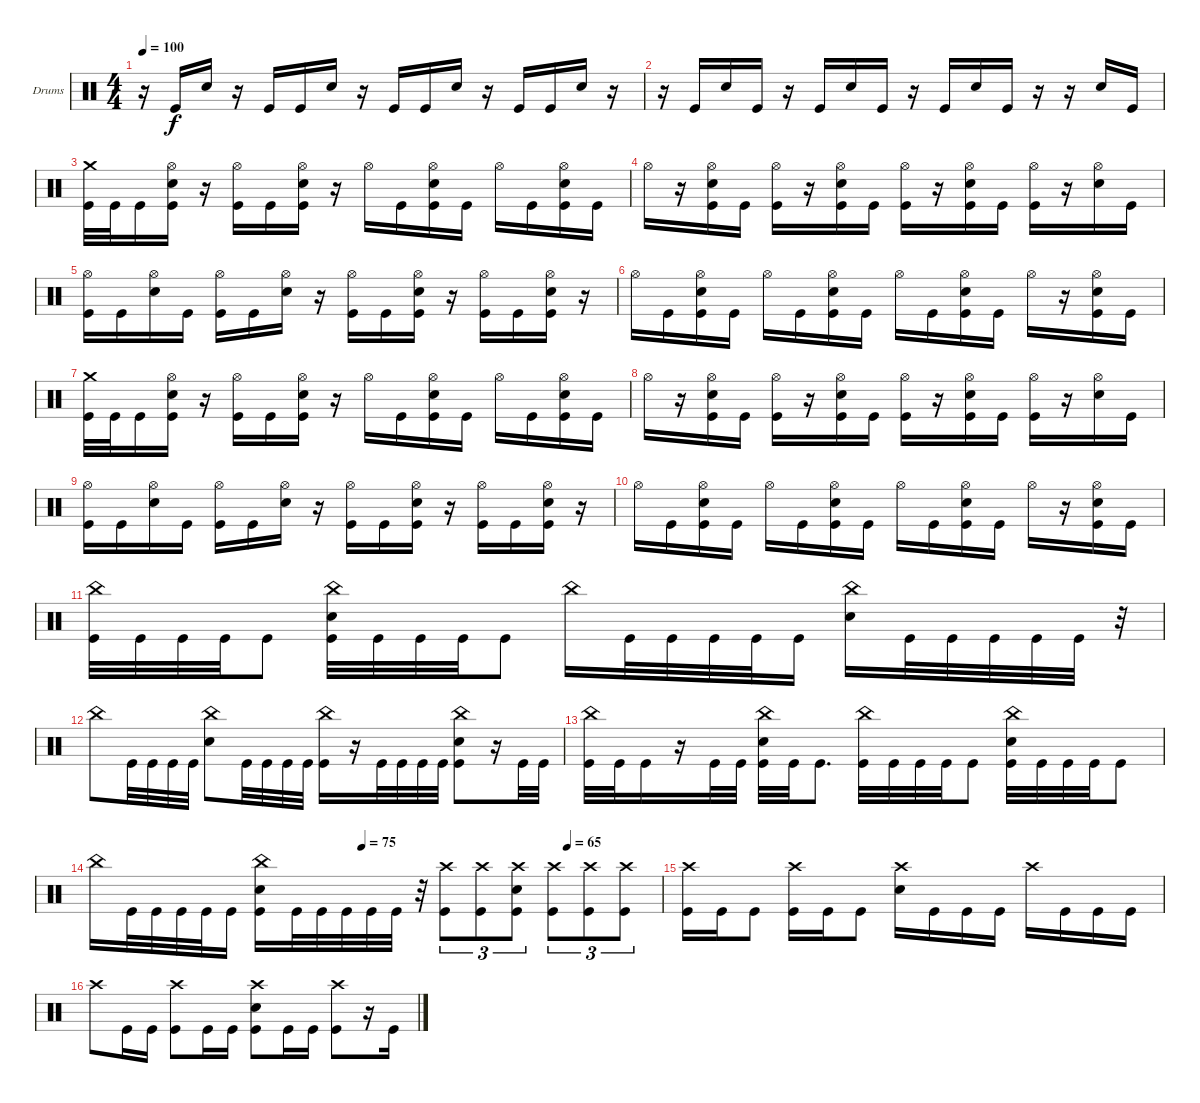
\defaultSystemsLayout 4
\bracketExtendMode groupsimilarinstruments
\firstSystemTrackNameOrientation horizontal
\otherSystemsTrackNameOrientation horizontal
\track ("Drumkit" "Drums") {instrument percussion}
\staff {score}
\articulation defaults
\ts (4 4)
\tempo 100
\clef neutral
\scale
0.5
\ks c
r.16{dy f} "Kick (hit)".16 "Snare (hit) 2".16 r.16 "Kick (hit)".16 "Kick (hit)".16 "Snare (hit) 2".16 r.16 "Kick (hit)".16 "Kick (hit)".16 "Snare (hit) 2".16 r.16 "Kick (hit)".16 "Kick (hit)".16 "Snare (hit) 2".16 r.16 |
\scale
0.5 r.16 "Kick (hit)".16 "Snare (hit) 2".16 "Kick (hit)".16 r.16 "Kick (hit)".16 "Snare (hit) 2".16 "Kick (hit)".16 r.16 "Kick (hit)".16 "Snare (hit) 2".16 "Kick (hit)".16 r.16 r.16 "Snare (hit) 2".16 "Kick (hit)".16 |
\scale
0.522158 ("Crash medium (hit)" "Kick (hit)").32 "Kick (hit)".32 "Kick (hit)".16 ("Hi-Hat (open)" "Snare (hit) 2" "Kick (hit)").16 r.16 ("Hi-Hat (open)" "Kick (hit)").16 "Kick (hit)".16 ("Hi-Hat (open)" "Snare (hit) 2" "Kick (hit)").16 r.16 "Hi-Hat (open)".16 "Kick (hit)".16 ("Hi-Hat (open)" "Snare (hit) 2" "Kick (hit)").16 "Kick (hit)".16 "Hi-Hat (open)".16 "Kick (hit)".16 ("Hi-Hat (open)" "Snare (hit) 2" "Kick (hit)").16 "Kick (hit)".16 |
\scale
0.477842 "Hi-Hat (open)".16 r.16 ("Hi-Hat (open)" "Snare (hit) 2" "Kick (hit)").16 "Kick (hit)".16 ("Hi-Hat (open)" "Kick (hit)").16 r.16 ("Hi-Hat (open)" "Snare (hit) 2" "Kick (hit)").16 "Kick (hit)".16 ("Hi-Hat (open)" "Kick (hit)").16 r.16 ("Hi-Hat (open)" "Snare (hit) 2" "Kick (hit)").16 "Kick (hit)".16 ("Hi-Hat (open)" "Kick (hit)").16 r.16 ("Hi-Hat (open)" "Snare (hit) 2").16 "Kick (hit)".16 |
\scale
0.5 ("Hi-Hat (open)" "Kick (hit)").16 "Kick (hit)".16 ("Hi-Hat (open)" "Snare (hit) 2").16 "Kick (hit)".16 ("Hi-Hat (open)" "Kick (hit)").16 "Kick (hit)".16 ("Hi-Hat (open)" "Snare (hit) 2").16 r.16 ("Hi-Hat (open)" "Kick (hit)").16 "Kick (hit)".16 ("Hi-Hat (open)" "Snare (hit) 2" "Kick (hit)").16 r.16 ("Hi-Hat (open)" "Kick (hit)").16 "Kick (hit)".16 ("Hi-Hat (open)" "Snare (hit) 2" "Kick (hit)").16 r.16 |
\scale
0.5 "Hi-Hat (open)".16 "Kick (hit)".16 ("Hi-Hat (open)" "Snare (hit) 2" "Kick (hit)").16 "Kick (hit)".16 "Hi-Hat (open)".16 "Kick (hit)".16 ("Hi-Hat (open)" "Snare (hit) 2" "Kick (hit)").16 "Kick (hit)".16 "Hi-Hat (open)".16 "Kick (hit)".16 ("Hi-Hat (open)" "Snare (hit) 2" "Kick (hit)").16 "Kick (hit)".16 "Hi-Hat (open)".16 r.16 ("Hi-Hat (open)" "Snare (hit) 2" "Kick (hit)").16 "Kick (hit)".16 |
\scale
0.522158 ("Crash medium (hit)" "Kick (hit)").32 "Kick (hit)".32 "Kick (hit)".16 ("Hi-Hat (open)" "Snare (hit) 2" "Kick (hit)").16 r.16 ("Hi-Hat (open)" "Kick (hit)").16 "Kick (hit)".16 ("Hi-Hat (open)" "Snare (hit) 2" "Kick (hit)").16 r.16 "Hi-Hat (open)".16 "Kick (hit)".16 ("Hi-Hat (open)" "Snare (hit) 2" "Kick (hit)").16 "Kick (hit)".16 "Hi-Hat (open)".16 "Kick (hit)".16 ("Hi-Hat (open)" "Snare (hit) 2" "Kick (hit)").16 "Kick (hit)".16 |
\scale
0.477842 "Hi-Hat (open)".16 r.16 ("Hi-Hat (open)" "Snare (hit) 2" "Kick (hit)").16 "Kick (hit)".16 ("Hi-Hat (open)" "Kick (hit)").16 r.16 ("Hi-Hat (open)" "Snare (hit) 2" "Kick (hit)").16 "Kick (hit)".16 ("Hi-Hat (open)" "Kick (hit)").16 r.16 ("Hi-Hat (open)" "Snare (hit) 2" "Kick (hit)").16 "Kick (hit)".16 ("Hi-Hat (open)" "Kick (hit)").16 r.16 ("Hi-Hat (open)" "Snare (hit) 2").16 "Kick (hit)".16 |
\scale
0.5 ("Hi-Hat (open)" "Kick (hit)").16 "Kick (hit)".16 ("Hi-Hat (open)" "Snare (hit) 2").16 "Kick (hit)".16 ("Hi-Hat (open)" "Kick (hit)").16 "Kick (hit)".16 ("Hi-Hat (open)" "Snare (hit) 2").16 r.16 ("Hi-Hat (open)" "Kick (hit)").16 "Kick (hit)".16 ("Hi-Hat (open)" "Snare (hit) 2" "Kick (hit)").16 r.16 ("Hi-Hat (open)" "Kick (hit)").16 "Kick (hit)".16 ("Hi-Hat (open)" "Snare (hit) 2" "Kick (hit)").16 r.16 |
\scale
0.5 "Hi-Hat (open)".16 "Kick (hit)".16 ("Hi-Hat (open)" "Snare (hit) 2" "Kick (hit)").16 "Kick (hit)".16 "Hi-Hat (open)".16 "Kick (hit)".16 ("Hi-Hat (open)" "Snare (hit) 2" "Kick (hit)").16 "Kick (hit)".16 "Hi-Hat (open)".16 "Kick (hit)".16 ("Hi-Hat (open)" "Snare (hit) 2" "Kick (hit)").16 "Kick (hit)".16 "Hi-Hat (open)".16 r.16 ("Hi-Hat (open)" "Snare (hit) 2" "Kick (hit)").16 "Kick (hit)".16 |
\scale
0.518333 ("China (hit)" "Kick (hit)").32 "Kick (hit)".32 "Kick (hit)".32 "Kick (hit)".32 "Kick (hit)".8 ("China (hit)" "Snare (hit) 2" "Kick (hit)").32 "Kick (hit)".32 "Kick (hit)".32 "Kick (hit)".32 "Kick (hit)".8 "China (hit)".16 "Kick (hit)".32 "Kick (hit)".32 "Kick (hit)".32 "Kick (hit)".32 "Kick (hit)".16 ("China (hit)" "Snare (hit) 2").16 "Kick (hit)".32 "Kick (hit)".32 "Kick (hit)".32 "Kick (hit)".32 "Kick (hit)".32 r.32 |
\scale
0.481667 "China (hit)".8 "Kick (hit)".32 "Kick (hit)".32 "Kick (hit)".32 "Kick (hit)".32 ("China (hit)" "Snare (hit) 2").8 "Kick (hit)".32 "Kick (hit)".32 "Kick (hit)".32 "Kick (hit)".32 ("China (hit)" "Kick (hit)").16 r.16 "Kick (hit)".32 "Kick (hit)".32 "Kick (hit)".32 "Kick (hit)".32 ("China (hit)" "Snare (hit) 2" "Kick (hit)").8 r.16 "Kick (hit)".32 "Kick (hit)".32 |
\scale
0.47449 ("China (hit)" "Kick (hit)").32 "Kick (hit)".32 "Kick (hit)".16 r.16 "Kick (hit)".32 "Kick (hit)".32 ("China (hit)" "Snare (hit) 2" "Kick (hit)").32 "Kick (hit)".32 "Kick (hit)".8{d} ("China (hit)" "Kick (hit)").32 "Kick (hit)".32 "Kick (hit)".32 "Kick (hit)".32 "Kick (hit)".8 ("China (hit)" "Snare (hit) 2" "Kick (hit)").32 "Kick (hit)".32 "Kick (hit)".32 "Kick (hit)".32 "Kick (hit)".8 |
\tempo (75 0.46875)
\tempo (65 0.833333)
\scale
0.52551 "China (hit)".16 "Kick (hit)".32 "Kick (hit)".32 "Kick (hit)".32 "Kick (hit)".32 "Kick (hit)".16 ("China (hit)" "Snare (hit) 2" "Kick (hit)").16 "Kick (hit)".32 "Kick (hit)".32 "Kick (hit)".32 "Kick (hit)".32 "Kick (hit)".32 r.32 ("Crash high (hit)" "Kick (hit)").8{tu (3 2)} ("Crash high (hit)" "Kick (hit)").8{tu (3 2)} ("Crash high (hit)" "Snare (hit) 2" "Kick (hit)").8{tu (3 2)} ("Crash high (hit)" "Kick (hit)").8{tu (3 2)} ("Crash high (hit)" "Kick (hit)").8{tu (3 2)} ("Crash high (hit)" "Kick (hit)").8{tu (3 2)} |
\scale
0.520362 ("Crash high (hit)" "Kick (hit)").16 "Kick (hit)".16 "Kick (hit)".8 ("Crash high (hit)" "Kick (hit)").16 "Kick (hit)".16 "Kick (hit)".8 ("Crash high (hit)" "Snare (hit) 2").16 "Kick (hit)".16 "Kick (hit)".16 "Kick (hit)".16 "Crash high (hit)".16 "Kick (hit)".16 "Kick (hit)".16 "Kick (hit)".16 |
\scale
0.479638 "Crash high (hit)".8 "Kick (hit)".16 "Kick (hit)".16 ("Crash high (hit)" "Kick (hit)").8 "Kick (hit)".16 "Kick (hit)".16 ("Crash high (hit)" "Snare (hit) 2" "Kick (hit)").8 "Kick (hit)".16 "Kick (hit)".16 ("Crash high (hit)" "Kick (hit)").8 r.16 "Kick (hit)".16
